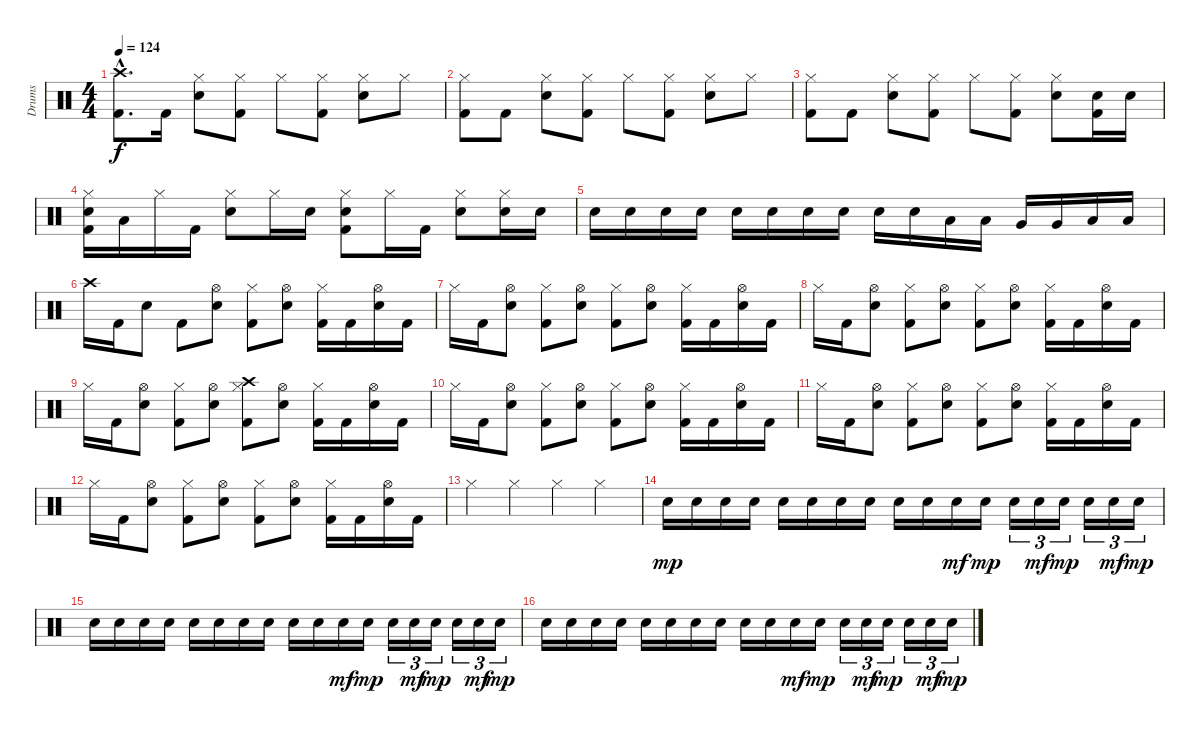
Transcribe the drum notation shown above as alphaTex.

\track ("Drums" "Drums") {instrument percussion}
\staff {score}
\articulation defaults
\ts (4 4)
\tempo 124
\clef neutral
\ks c
("Crash high (hit)"{hac} "Kick (hit) 2"{hac}).8{d dy f} "Kick (hit) 2".16 ("Hi-Hat (closed)" "Electric Snare (hit)").8 ("Hi-Hat (closed)" "Kick (hit) 2").8 "Hi-Hat (closed)".8 ("Hi-Hat (closed)" "Kick (hit) 2").8 ("Hi-Hat (closed)" "Electric Snare (hit)").8 "Hi-Hat (closed)".8 |
("Hi-Hat (closed)" "Kick (hit) 2").8 "Kick (hit) 2".8 ("Hi-Hat (closed)" "Electric Snare (hit)").8 ("Hi-Hat (closed)" "Kick (hit) 2").8 "Hi-Hat (closed)".8 ("Hi-Hat (closed)" "Kick (hit) 2").8 ("Hi-Hat (closed)" "Electric Snare (hit)").8 "Hi-Hat (closed)".8 |
("Hi-Hat (closed)" "Kick (hit) 2").8 "Kick (hit) 2".8 ("Hi-Hat (closed)" "Electric Snare (hit)").8 ("Hi-Hat (closed)" "Kick (hit) 2").8 "Hi-Hat (closed)".8 ("Hi-Hat (closed)" "Kick (hit) 2").8 ("Hi-Hat (closed)" "Electric Snare (hit)").8 ("Kick (hit) 2" "Electric Snare (hit)").16 "Electric Snare (hit)".16 |
("Hi-Hat (closed)" "Snare (hit) 2" "Kick (hit) 2").16 "Low Floor Tom (hit)".16 "Hi-Hat (closed)".16 "Kick (hit) 2".16 ("Hi-Hat (closed)" "Electric Snare (hit)").8 "Hi-Hat (closed)".16 "Snare (hit) 2".16 ("Hi-Hat (closed)" "Snare (hit) 2" "Kick (hit) 2").8 "Hi-Hat (closed)".16 "Kick (hit) 2".16 ("Hi-Hat (closed)" "Electric Snare (hit)").8 ("Hi-Hat (closed)" "Snare (hit) 2").16 "Snare (hit) 2".16 |
"Snare (hit) 2".16 "Snare (hit) 2".16 "Snare (hit) 2".16 "Snare (hit) 2".16 "Snare (hit) 2".16 "Snare (hit) 2".16 "Snare (hit) 2".16 "Snare (hit) 2".16 "Electric Snare (hit)".16 "Electric Snare (hit)".16 "Low Tom (hit)".16 "Low Tom (hit)".16 "Very Low Tom (hit)".16 "Very Low Tom (hit)".16 "Low Floor Tom (hit)".16 "Low Floor Tom (hit)".16 |
"Crash high (hit)".16 "Kick (hit) 2".16 "Electric Snare (hit)".8 "Kick (hit) 2".8 ("Hi-Hat (open)" "Electric Snare (hit)").8 ("Hi-Hat (closed)" "Kick (hit) 2").8 ("Hi-Hat (open)" "Electric Snare (hit)").8 ("Hi-Hat (closed)" "Kick (hit) 2").16 "Kick (hit) 2".16 ("Hi-Hat (open)" "Electric Snare (hit)").16 "Kick (hit) 2".16 |
"Hi-Hat (closed)".16 "Kick (hit) 2".16 ("Hi-Hat (open)" "Electric Snare (hit)").8 ("Hi-Hat (closed)" "Kick (hit) 2").8 ("Hi-Hat (open)" "Electric Snare (hit)").8 ("Hi-Hat (closed)" "Kick (hit) 2").8 ("Hi-Hat (open)" "Electric Snare (hit)").8 ("Hi-Hat (closed)" "Kick (hit) 2").16 "Kick (hit) 2".16 ("Hi-Hat (open)" "Electric Snare (hit)").16 "Kick (hit) 2".16 |
"Hi-Hat (closed)".16 "Kick (hit) 2".16 ("Hi-Hat (open)" "Electric Snare (hit)").8 ("Hi-Hat (closed)" "Kick (hit) 2").8 ("Hi-Hat (open)" "Electric Snare (hit)").8 ("Hi-Hat (closed)" "Kick (hit) 2").8 ("Hi-Hat (open)" "Electric Snare (hit)").8 ("Hi-Hat (closed)" "Kick (hit) 2").16 "Kick (hit) 2".16 ("Hi-Hat (open)" "Electric Snare (hit)").16 "Kick (hit) 2".16 |
"Hi-Hat (closed)".16 "Kick (hit) 2".16 ("Hi-Hat (open)" "Electric Snare (hit)").8 ("Hi-Hat (closed)" "Kick (hit) 2").8 ("Hi-Hat (open)" "Electric Snare (hit)").8 ("Hi-Hat (closed)" "Crash high (hit)" "Kick (hit) 2").8 ("Hi-Hat (open)" "Electric Snare (hit)").8 ("Hi-Hat (closed)" "Kick (hit) 2").16 "Kick (hit) 2".16 ("Hi-Hat (open)" "Electric Snare (hit)").16 "Kick (hit) 2".16 |
"Hi-Hat (closed)".16 "Kick (hit) 2".16 ("Hi-Hat (open)" "Electric Snare (hit)").8 ("Hi-Hat (closed)" "Kick (hit) 2").8 ("Hi-Hat (open)" "Electric Snare (hit)").8 ("Hi-Hat (closed)" "Kick (hit) 2").8 ("Hi-Hat (open)" "Electric Snare (hit)").8 ("Hi-Hat (closed)" "Kick (hit) 2").16 "Kick (hit) 2".16 ("Hi-Hat (open)" "Electric Snare (hit)").16 "Kick (hit) 2".16 |
"Hi-Hat (closed)".16 "Kick (hit) 2".16 ("Hi-Hat (open)" "Electric Snare (hit)").8 ("Hi-Hat (closed)" "Kick (hit) 2").8 ("Hi-Hat (open)" "Electric Snare (hit)").8 ("Hi-Hat (closed)" "Kick (hit) 2").8 ("Hi-Hat (open)" "Electric Snare (hit)").8 ("Hi-Hat (closed)" "Kick (hit) 2").16 "Kick (hit) 2".16 ("Hi-Hat (open)" "Electric Snare (hit)").16 "Kick (hit) 2".16 |
"Hi-Hat (closed)".16 "Kick (hit) 2".16 ("Hi-Hat (open)" "Electric Snare (hit)").8 ("Hi-Hat (closed)" "Kick (hit) 2").8 ("Hi-Hat (open)" "Electric Snare (hit)").8 ("Hi-Hat (closed)" "Kick (hit) 2").8 ("Hi-Hat (open)" "Electric Snare (hit)").8 ("Hi-Hat (closed)" "Kick (hit) 2").16 "Kick (hit) 2".16 ("Hi-Hat (open)" "Electric Snare (hit)").16 "Kick (hit) 2".16 |
"Hi-Hat (closed)".4 "Hi-Hat (closed)".4 "Hi-Hat (closed)".4 "Hi-Hat (closed)".4 |
"Snare (hit) 2".16{dy mp volume 7} "Snare (hit) 2".16 "Snare (hit) 2".16 "Snare (hit) 2".16 "Electric Snare (hit)".16 "Snare (hit) 2".16 "Snare (hit) 2".16 "Electric Snare (hit)".16 "Snare (hit) 2".16 "Snare (hit) 2".16 "Snare (hit) 2".16{dy mf} "Snare (hit) 2".16{dy mp} "Snare (hit) 2".16{tu (3 2)} "Snare (hit) 2".16{tu (3 2) dy mf} "Snare (hit) 2".16{tu (3 2) dy mp} "Snare (hit) 2".16{tu (3 2)} "Snare (hit) 2".16{tu (3 2) dy mf} "Snare (hit) 2".16{tu (3 2) dy mp} |
"Snare (hit) 2".16{volume 7} "Snare (hit) 2".16 "Snare (hit) 2".16 "Snare (hit) 2".16 "Electric Snare (hit)".16 "Snare (hit) 2".16 "Snare (hit) 2".16 "Electric Snare (hit)".16 "Snare (hit) 2".16 "Snare (hit) 2".16 "Snare (hit) 2".16{dy mf} "Snare (hit) 2".16{dy mp} "Snare (hit) 2".16{tu (3 2)} "Snare (hit) 2".16{tu (3 2) dy mf} "Snare (hit) 2".16{tu (3 2) dy mp} "Snare (hit) 2".16{tu (3 2)} "Snare (hit) 2".16{tu (3 2) dy mf} "Snare (hit) 2".16{tu (3 2) dy mp} |
"Snare (hit) 2".16{volume 7} "Snare (hit) 2".16 "Snare (hit) 2".16 "Snare (hit) 2".16 "Electric Snare (hit)".16 "Snare (hit) 2".16 "Snare (hit) 2".16 "Electric Snare (hit)".16 "Snare (hit) 2".16 "Snare (hit) 2".16 "Snare (hit) 2".16{dy mf} "Snare (hit) 2".16{dy mp} "Snare (hit) 2".16{tu (3 2)} "Snare (hit) 2".16{tu (3 2) dy mf} "Snare (hit) 2".16{tu (3 2) dy mp} "Snare (hit) 2".16{tu (3 2)} "Snare (hit) 2".16{tu (3 2) dy mf} "Snare (hit) 2".16{tu (3 2) dy mp}
